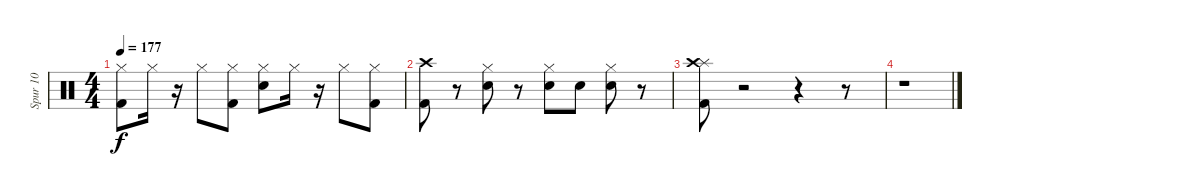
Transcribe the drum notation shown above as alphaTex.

\track ("Spur 10" "Spur 10") {instrument percussion}
\staff {score}
\articulation defaults
\ts (4 4)
\tempo 177
\clef neutral
\ks c
("Kick (hit) 2" "Hi-Hat (closed)").8{dy f} "Hi-Hat (closed)".16 r.16 "Hi-Hat (closed)".8 ("Hi-Hat (closed)" "Kick (hit) 2").8 ("Electric Snare (hit)" "Hi-Hat (closed)").8 "Hi-Hat (closed)".16 r.16 "Hi-Hat (closed)".8 ("Kick (hit) 2" "Hi-Hat (closed)").8 |
("Kick (hit) 2" "Crash high (hit)").8 r.8 ("Hi-Hat (closed)" "Electric Snare (hit)").8 r.8 ("Hi-Hat (closed)" "Electric Snare (hit)").8 "Electric Snare (hit)".8 ("Hi-Hat (closed)" "Electric Snare (hit)").8 r.8 |
("Splash (hit)" "Crash high (hit)" "Kick (hit) 2").8 r.2 r.4 r.8 |
r.1
